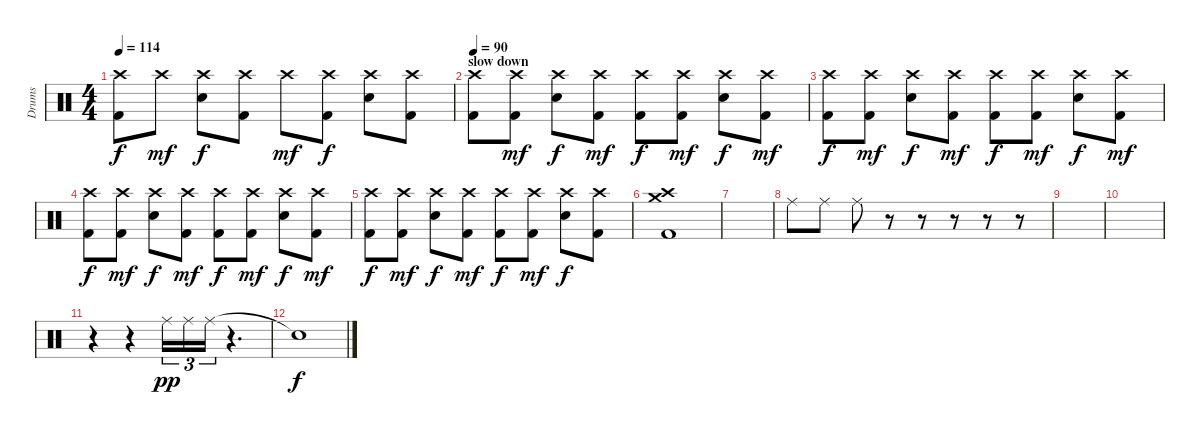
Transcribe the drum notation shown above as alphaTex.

\track ("Drums" "Drums") {instrument percussion}
\staff {score}
\articulation defaults
\ts (4 4)
\tempo 114
\clef neutral
\ks c
("Crash high (hit)" "Kick (hit) 2").8{dy f} "Crash high (hit)".8{dy mf} ("Crash high (hit)" "Snare (hit) 2").8{dy f} ("Crash high (hit)" "Kick (hit) 2").8 "Crash high (hit)".8{dy mf} ("Crash high (hit)" "Kick (hit) 2").8{dy f} ("Crash high (hit)" "Snare (hit) 2").8 ("Crash high (hit)" "Kick (hit) 2").8 |
\section ("" "slow down")
\tempo 90
("Crash high (hit)" "Kick (hit) 2").8 ("Crash high (hit)" "Kick (hit) 2").8{dy mf} ("Crash high (hit)" "Snare (hit) 2").8{dy f} ("Crash high (hit)" "Kick (hit) 2").8{dy mf} ("Crash high (hit)" "Kick (hit) 2").8{dy f} ("Crash high (hit)" "Kick (hit) 2").8{dy mf} ("Crash high (hit)" "Snare (hit) 2").8{dy f} ("Crash high (hit)" "Kick (hit) 2").8{dy mf} |
("Crash high (hit)" "Kick (hit) 2").8{dy f} ("Crash high (hit)" "Kick (hit) 2").8{dy mf} ("Crash high (hit)" "Snare (hit) 2").8{dy f} ("Crash high (hit)" "Kick (hit) 2").8{dy mf} ("Crash high (hit)" "Kick (hit) 2").8{dy f} ("Crash high (hit)" "Kick (hit) 2").8{dy mf} ("Crash high (hit)" "Snare (hit) 2").8{dy f} ("Crash high (hit)" "Kick (hit) 2").8{dy mf} |
("Crash high (hit)" "Kick (hit) 2").8{dy f} ("Crash high (hit)" "Kick (hit) 2").8{dy mf} ("Crash high (hit)" "Snare (hit) 2").8{dy f} ("Crash high (hit)" "Kick (hit) 2").8{dy mf} ("Crash high (hit)" "Kick (hit) 2").8{dy f} ("Crash high (hit)" "Kick (hit) 2").8{dy mf} ("Crash high (hit)" "Snare (hit) 2").8{dy f} ("Crash high (hit)" "Kick (hit) 2").8{dy mf} |
("Crash high (hit)" "Kick (hit) 2").8{dy f} ("Crash high (hit)" "Kick (hit) 2").8{dy mf} ("Crash high (hit)" "Snare (hit) 2").8{dy f} ("Crash high (hit)" "Kick (hit) 2").8{dy mf} ("Crash high (hit)" "Kick (hit) 2").8{dy f} ("Crash high (hit)" "Kick (hit) 2").8{dy mf} ("Crash high (hit)" "Snare (hit) 2").8{dy f} ("Crash high (hit)" "Kick (hit) 2").8 |
("Crash medium (hit)" "Crash high (hit)" "Kick (hit) 2").1 |
|
"Ride (middle)".8 "Ride (middle)".8 "Ride (middle)".8 r.8 r.8 r.8 r.8 r.8 |
|
|
r.4 r.4 "Ride (middle)".16{tu (3 2) dy pp} "Ride (middle)".16{tu (3 2)} "Ride (middle)".16{tu (3 2)} r.4{d} |
"Snare (hit)"{t}.1{dy f}
